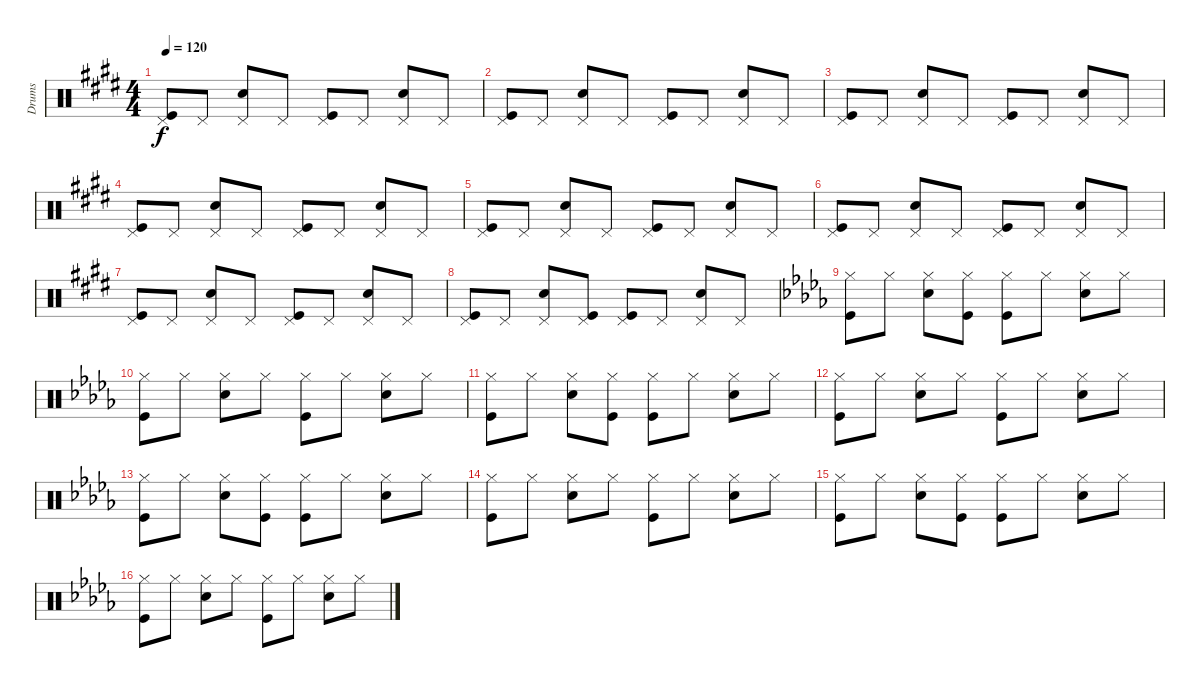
\track ("Drums" "Drums") {instrument percussion}
\staff {score}
\articulation defaults
\ts (4 4)
\tempo 120
\clef neutral
\ks e
("Pedal Hi-Hat (hit)" "Kick (hit)").8{dy f} "Pedal Hi-Hat (hit)".8 ("Pedal Hi-Hat (hit)" "Snare (hit) 2").8 "Pedal Hi-Hat (hit)".8 ("Pedal Hi-Hat (hit)" "Kick (hit)").8 "Pedal Hi-Hat (hit)".8 ("Pedal Hi-Hat (hit)" "Snare (hit) 2").8 "Pedal Hi-Hat (hit)".8 |
("Pedal Hi-Hat (hit)" "Kick (hit)").8 "Pedal Hi-Hat (hit)".8 ("Pedal Hi-Hat (hit)" "Snare (hit) 2").8 "Pedal Hi-Hat (hit)".8 ("Pedal Hi-Hat (hit)" "Kick (hit)").8 "Pedal Hi-Hat (hit)".8 ("Pedal Hi-Hat (hit)" "Snare (hit) 2").8 "Pedal Hi-Hat (hit)".8 |
("Pedal Hi-Hat (hit)" "Kick (hit)").8 "Pedal Hi-Hat (hit)".8 ("Pedal Hi-Hat (hit)" "Snare (hit) 2").8 "Pedal Hi-Hat (hit)".8 ("Pedal Hi-Hat (hit)" "Kick (hit)").8 "Pedal Hi-Hat (hit)".8 ("Pedal Hi-Hat (hit)" "Snare (hit) 2").8 "Pedal Hi-Hat (hit)".8 |
("Pedal Hi-Hat (hit)" "Kick (hit)").8 "Pedal Hi-Hat (hit)".8 ("Pedal Hi-Hat (hit)" "Snare (hit) 2").8 "Pedal Hi-Hat (hit)".8 ("Pedal Hi-Hat (hit)" "Kick (hit)").8 "Pedal Hi-Hat (hit)".8 ("Pedal Hi-Hat (hit)" "Snare (hit) 2").8 "Pedal Hi-Hat (hit)".8 |
("Pedal Hi-Hat (hit)" "Kick (hit)").8 "Pedal Hi-Hat (hit)".8 ("Pedal Hi-Hat (hit)" "Snare (hit) 2").8 "Pedal Hi-Hat (hit)".8 ("Pedal Hi-Hat (hit)" "Kick (hit)").8 "Pedal Hi-Hat (hit)".8 ("Pedal Hi-Hat (hit)" "Snare (hit) 2").8 "Pedal Hi-Hat (hit)".8 |
("Pedal Hi-Hat (hit)" "Kick (hit)").8 "Pedal Hi-Hat (hit)".8 ("Pedal Hi-Hat (hit)" "Snare (hit) 2").8 "Pedal Hi-Hat (hit)".8 ("Pedal Hi-Hat (hit)" "Kick (hit)").8 "Pedal Hi-Hat (hit)".8 ("Pedal Hi-Hat (hit)" "Snare (hit) 2").8 "Pedal Hi-Hat (hit)".8 |
("Pedal Hi-Hat (hit)" "Kick (hit)").8 "Pedal Hi-Hat (hit)".8 ("Pedal Hi-Hat (hit)" "Snare (hit) 2").8 "Pedal Hi-Hat (hit)".8 ("Pedal Hi-Hat (hit)" "Kick (hit)").8 "Pedal Hi-Hat (hit)".8 ("Pedal Hi-Hat (hit)" "Snare (hit) 2").8 "Pedal Hi-Hat (hit)".8 |
("Pedal Hi-Hat (hit)" "Kick (hit)").8 "Pedal Hi-Hat (hit)".8 ("Pedal Hi-Hat (hit)" "Snare (hit) 2").8 ("Pedal Hi-Hat (hit)" "Kick (hit)").8 ("Pedal Hi-Hat (hit)" "Kick (hit)").8 "Pedal Hi-Hat (hit)".8 ("Pedal Hi-Hat (hit)" "Snare (hit) 2").8 "Pedal Hi-Hat (hit)".8 |
\ks db
("Hi-Hat (closed)" "Kick (hit)").8 "Hi-Hat (closed)".8 ("Hi-Hat (closed)" "Snare (hit) 2").8 ("Hi-Hat (closed)" "Kick (hit)").8 ("Hi-Hat (closed)" "Kick (hit)").8 "Hi-Hat (closed)".8 ("Hi-Hat (closed)" "Snare (hit) 2").8 "Hi-Hat (closed)".8 |
("Hi-Hat (closed)" "Kick (hit)").8 "Hi-Hat (closed)".8 ("Hi-Hat (closed)" "Snare (hit) 2").8 "Hi-Hat (closed)".8 ("Hi-Hat (closed)" "Kick (hit)").8 "Hi-Hat (closed)".8 ("Hi-Hat (closed)" "Snare (hit) 2").8 "Hi-Hat (closed)".8 |
("Hi-Hat (closed)" "Kick (hit)").8 "Hi-Hat (closed)".8 ("Hi-Hat (closed)" "Snare (hit) 2").8 ("Hi-Hat (closed)" "Kick (hit)").8 ("Hi-Hat (closed)" "Kick (hit)").8 "Hi-Hat (closed)".8 ("Hi-Hat (closed)" "Snare (hit) 2").8 "Hi-Hat (closed)".8 |
("Hi-Hat (closed)" "Kick (hit)").8 "Hi-Hat (closed)".8 ("Hi-Hat (closed)" "Snare (hit) 2").8 "Hi-Hat (closed)".8 ("Hi-Hat (closed)" "Kick (hit)").8 "Hi-Hat (closed)".8 ("Hi-Hat (closed)" "Snare (hit) 2").8 "Hi-Hat (closed)".8 |
("Hi-Hat (closed)" "Kick (hit)").8 "Hi-Hat (closed)".8 ("Hi-Hat (closed)" "Snare (hit) 2").8 ("Hi-Hat (closed)" "Kick (hit)").8 ("Hi-Hat (closed)" "Kick (hit)").8 "Hi-Hat (closed)".8 ("Hi-Hat (closed)" "Snare (hit) 2").8 "Hi-Hat (closed)".8 |
("Hi-Hat (closed)" "Kick (hit)").8 "Hi-Hat (closed)".8 ("Hi-Hat (closed)" "Snare (hit) 2").8 "Hi-Hat (closed)".8 ("Hi-Hat (closed)" "Kick (hit)").8 "Hi-Hat (closed)".8 ("Hi-Hat (closed)" "Snare (hit) 2").8 "Hi-Hat (closed)".8 |
("Hi-Hat (closed)" "Kick (hit)").8 "Hi-Hat (closed)".8 ("Hi-Hat (closed)" "Snare (hit) 2").8 ("Hi-Hat (closed)" "Kick (hit)").8 ("Hi-Hat (closed)" "Kick (hit)").8 "Hi-Hat (closed)".8 ("Hi-Hat (closed)" "Snare (hit) 2").8 "Hi-Hat (closed)".8 |
("Hi-Hat (closed)" "Kick (hit)").8 "Hi-Hat (closed)".8 ("Hi-Hat (closed)" "Snare (hit) 2").8 "Hi-Hat (closed)".8 ("Hi-Hat (closed)" "Kick (hit)").8 "Hi-Hat (closed)".8 ("Hi-Hat (closed)" "Snare (hit) 2").8 "Hi-Hat (closed)".8
